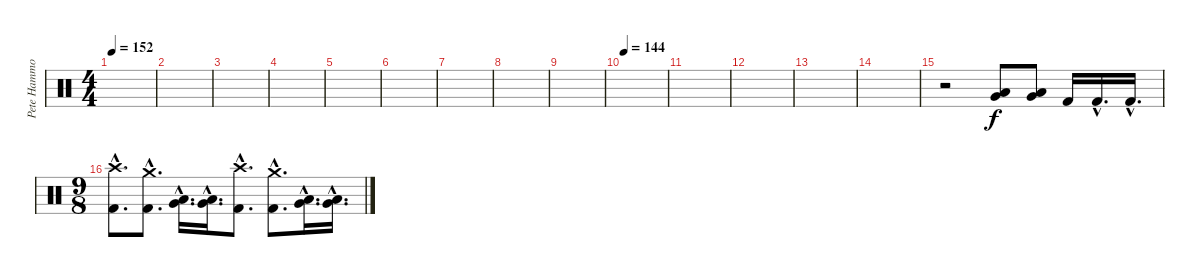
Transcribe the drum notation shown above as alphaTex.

\track ("Pete Hammoura 2" "Pete Hammo") {instrument percussion}
\staff {score}
\articulation defaults
\ts (4 4)
\tempo 152
\clef neutral
\ks c
|
|
|
|
|
|
|
|
|
\tempo 144
|
|
|
|
|
r.2 ("Low Tom (hit)" "Very Low Tom (hit)").8{dy f} ("Very Low Tom (hit)" "Low Floor Tom (hit)").8 "Kick (hit) 2".16 "Kick (hit) 2"{hac}.16{d} "Kick (hit) 2"{hac}.16{d} |
\ts (9 8)
("Crash high (hit)"{hac} "Kick (hit) 2"{hac}).8{d} ("Crash medium (hit)"{hac} "Kick (hit) 2"{hac}).8{d} ("Low Tom (hit)"{hac} "Very Low Tom (hit)"{hac}).16{d} ("Low Floor Tom (hit)"{hac} "Very Low Tom (hit)"{hac}).16{d} ("Crash high (hit)"{hac} "Kick (hit) 2"{hac}).8{d} ("Crash medium (hit)"{hac} "Kick (hit) 2"{hac}).8{d} ("Low Tom (hit)"{hac} "Very Low Tom (hit)"{hac}).16{d} ("Very Low Tom (hit)"{hac} "Low Floor Tom (hit)"{hac}).16{d}
